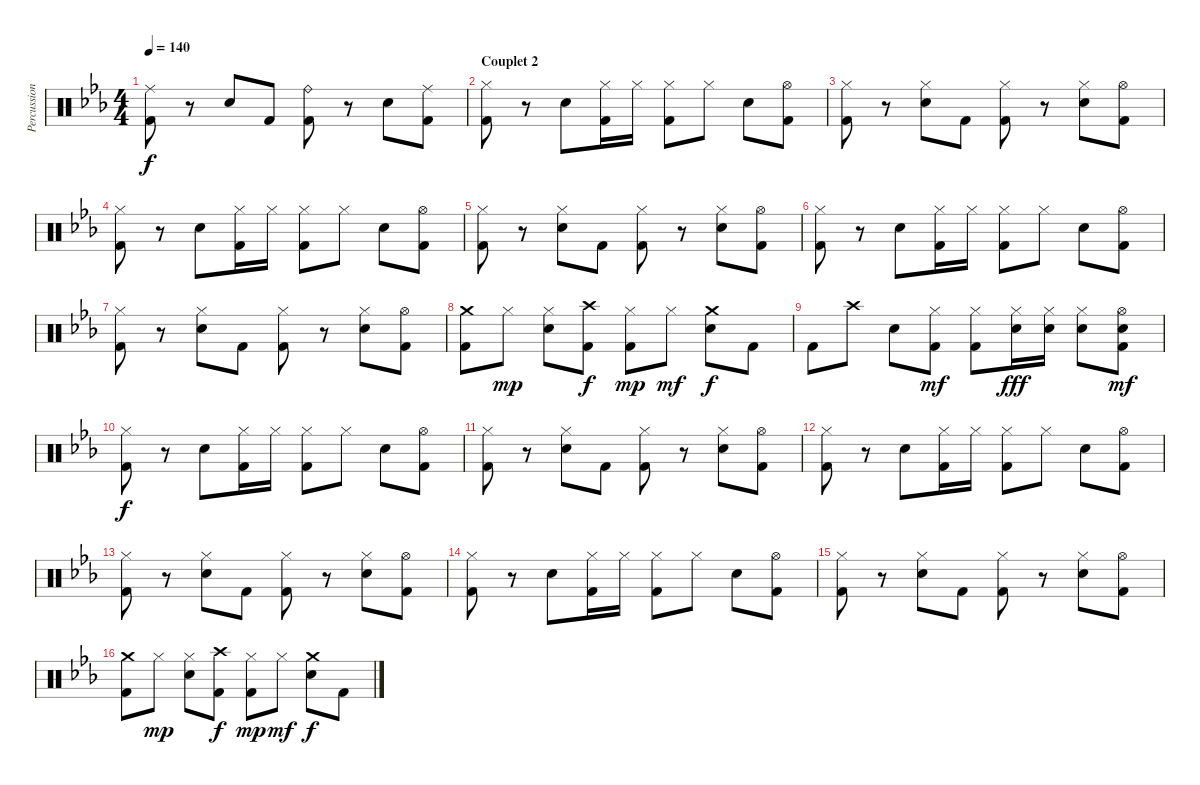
\track ("Percussions" "Percussion") {instrument percussion}
\staff {score}
\articulation defaults
\ts (4 4)
\tempo 140
\clef neutral
\ks eb
("Ride (middle)" "Kick (hit) 2").8{dy f} r.8 "Snare (hit) 2".8 "Kick (hit) 2".8 ("Ride (bell)" "Kick (hit) 2").8 r.8 "Snare (hit) 2".8 ("Ride (middle)" "Kick (hit) 2").8 |
\section ("" "Couplet 2")
("Hi-Hat (closed)" "Kick (hit) 2").8 r.8 "Snare (hit) 2".8 ("Hi-Hat (closed)" "Kick (hit) 2").16 "Hi-Hat (closed)".16 ("Hi-Hat (closed)" "Kick (hit) 2").8 "Hi-Hat (closed)".8 "Snare (hit) 2".8 ("Hi-Hat (open)" "Kick (hit) 2").8 |
("Hi-Hat (closed)" "Kick (hit) 2").8 r.8 ("Hi-Hat (closed)" "Snare (hit) 2").8 "Kick (hit) 2".8 ("Hi-Hat (closed)" "Kick (hit) 2").8 r.8 ("Hi-Hat (closed)" "Snare (hit) 2").8 ("Hi-Hat (open)" "Kick (hit) 2").8 |
("Hi-Hat (closed)" "Kick (hit) 2").8 r.8 "Snare (hit) 2".8 ("Hi-Hat (closed)" "Kick (hit) 2").16 "Hi-Hat (closed)".16 ("Hi-Hat (closed)" "Kick (hit) 2").8 "Hi-Hat (closed)".8 "Snare (hit) 2".8 ("Hi-Hat (open)" "Kick (hit) 2").8 |
("Hi-Hat (closed)" "Kick (hit) 2").8 r.8 ("Hi-Hat (closed)" "Snare (hit) 2").8 "Kick (hit) 2".8 ("Hi-Hat (closed)" "Kick (hit) 2").8 r.8 ("Hi-Hat (closed)" "Snare (hit) 2").8 ("Hi-Hat (open)" "Kick (hit) 2").8 |
("Hi-Hat (closed)" "Kick (hit) 2").8 r.8 "Snare (hit) 2".8 ("Hi-Hat (closed)" "Kick (hit) 2").16 "Hi-Hat (closed)".16 ("Hi-Hat (closed)" "Kick (hit) 2").8 "Hi-Hat (closed)".8 "Snare (hit) 2".8 ("Hi-Hat (open)" "Kick (hit) 2").8 |
("Hi-Hat (closed)" "Kick (hit) 2").8 r.8 ("Hi-Hat (closed)" "Snare (hit) 2").8 "Kick (hit) 2".8 ("Hi-Hat (closed)" "Kick (hit) 2").8 r.8 ("Hi-Hat (closed)" "Snare (hit) 2").8 ("Hi-Hat (open)" "Kick (hit) 2").8 |
("Crash medium (hit)" "Kick (hit) 2").8 "Hi-Hat (closed)".8{dy mp} ("Hi-Hat (closed)" "Snare (hit) 2").8 ("Crash high (hit)" "Kick (hit) 2").8{dy f} ("Hi-Hat (closed)" "Kick (hit) 2").8{dy mp} "Hi-Hat (closed)".8{dy mf} ("Crash medium (hit)" "Snare (hit) 2").8{dy f} "Kick (hit) 2".8 |
"Kick (hit) 2".8 "Crash high (hit)".8 "Snare (hit) 2".8 ("Hi-Hat (closed)" "Kick (hit) 2").8{dy mf} ("Hi-Hat (closed)" "Kick (hit) 2").8 ("Hi-Hat (closed)" "Snare (hit) 2").16{dy fff} ("Hi-Hat (closed)" "Snare (hit) 2").16 ("Hi-Hat (closed)" "Snare (hit) 2").8 ("Hi-Hat (open)" "Snare (hit) 2" "Kick (hit) 2").8{dy mf} |
("Hi-Hat (closed)" "Kick (hit) 2").8{dy f} r.8 "Snare (hit) 2".8 ("Hi-Hat (closed)" "Kick (hit) 2").16 "Hi-Hat (closed)".16 ("Hi-Hat (closed)" "Kick (hit) 2").8 "Hi-Hat (closed)".8 "Snare (hit) 2".8 ("Hi-Hat (open)" "Kick (hit) 2").8 |
("Hi-Hat (closed)" "Kick (hit) 2").8 r.8 ("Hi-Hat (closed)" "Snare (hit) 2").8 "Kick (hit) 2".8 ("Hi-Hat (closed)" "Kick (hit) 2").8 r.8 ("Hi-Hat (closed)" "Snare (hit) 2").8 ("Hi-Hat (open)" "Kick (hit) 2").8 |
("Hi-Hat (closed)" "Kick (hit) 2").8 r.8 "Snare (hit) 2".8 ("Hi-Hat (closed)" "Kick (hit) 2").16 "Hi-Hat (closed)".16 ("Hi-Hat (closed)" "Kick (hit) 2").8 "Hi-Hat (closed)".8 "Snare (hit) 2".8 ("Hi-Hat (open)" "Kick (hit) 2").8 |
("Hi-Hat (closed)" "Kick (hit) 2").8 r.8 ("Hi-Hat (closed)" "Snare (hit) 2").8 "Kick (hit) 2".8 ("Hi-Hat (closed)" "Kick (hit) 2").8 r.8 ("Hi-Hat (closed)" "Snare (hit) 2").8 ("Hi-Hat (open)" "Kick (hit) 2").8 |
("Hi-Hat (closed)" "Kick (hit) 2").8 r.8 "Snare (hit) 2".8 ("Hi-Hat (closed)" "Kick (hit) 2").16 "Hi-Hat (closed)".16 ("Hi-Hat (closed)" "Kick (hit) 2").8 "Hi-Hat (closed)".8 "Snare (hit) 2".8 ("Hi-Hat (open)" "Kick (hit) 2").8 |
("Hi-Hat (closed)" "Kick (hit) 2").8 r.8 ("Hi-Hat (closed)" "Snare (hit) 2").8 "Kick (hit) 2".8 ("Hi-Hat (closed)" "Kick (hit) 2").8 r.8 ("Hi-Hat (closed)" "Snare (hit) 2").8 ("Hi-Hat (open)" "Kick (hit) 2").8 |
("Crash medium (hit)" "Kick (hit) 2").8 "Hi-Hat (closed)".8{dy mp} ("Hi-Hat (closed)" "Snare (hit) 2").8 ("Crash high (hit)" "Kick (hit) 2").8{dy f} ("Hi-Hat (closed)" "Kick (hit) 2").8{dy mp} "Hi-Hat (closed)".8{dy mf} ("Crash medium (hit)" "Snare (hit) 2").8{dy f} "Kick (hit) 2".8
